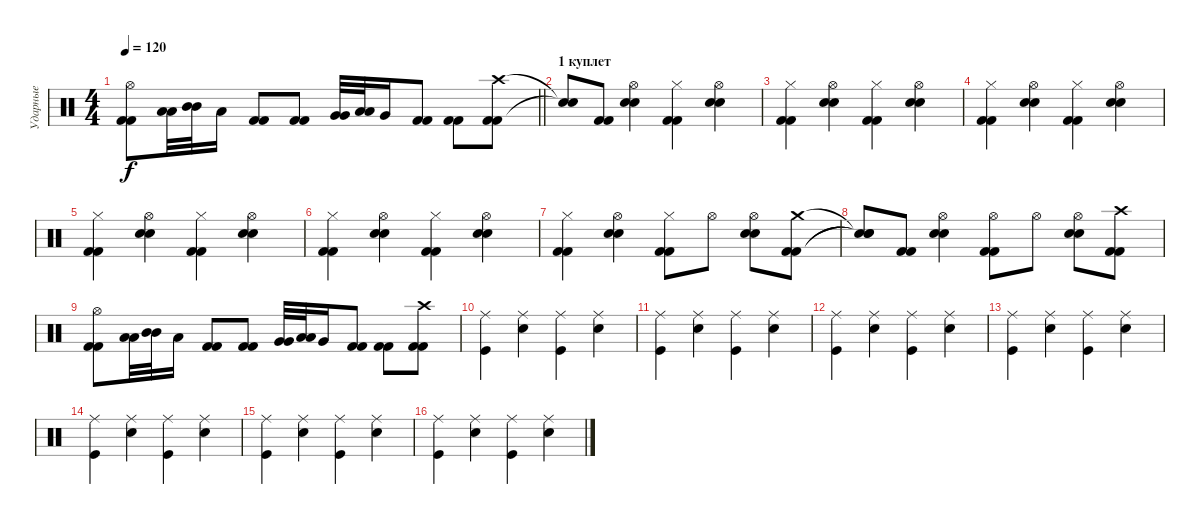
\track ("Ударные" "Ударные") {instrument percussion}
\staff {score}
\articulation defaults
\ts (4 4)
\tempo 120
\clef neutral
\barLineRight lightlight
\ks c
("Hi-Hat (open)" "Kick (hit) 2" "Kick (hit) 2").8{dy f} ("Low Tom (hit)" "Low Tom (hit)").32 ("Mid Tom (hit)" "Mid Tom (hit)").32 "Low Tom (hit)".16 ("Kick (hit) 2" "Kick (hit) 2").8 ("Kick (hit) 2" "Kick (hit) 2").8 ("Very Low Tom (hit)" "Very Low Tom (hit)").32 ("Low Tom (hit)" "Low Tom (hit)").32 "Very Low Tom (hit)".16 ("Kick (hit) 2" "Kick (hit) 2").8 ("Kick (hit) 2" "Kick (hit) 2").8 ("Crash high (hit)" "Kick (hit) 2" "Kick (hit) 2").8 |
\section ("" "1 куплет")
("Snare (hit)"{t} "Snare (hit)"{t}).8 ("Kick (hit) 2" "Kick (hit) 2").8 ("Hi-Hat (open)" "Electric Snare (hit)" "Electric Snare (hit)").4 ("Hi-Hat (closed)" "Kick (hit) 2" "Kick (hit) 2").4 ("Hi-Hat (open)" "Electric Snare (hit)" "Electric Snare (hit)").4 |
("Hi-Hat (closed)" "Kick (hit) 2" "Kick (hit) 2").4 ("Hi-Hat (open)" "Electric Snare (hit)" "Electric Snare (hit)").4 ("Hi-Hat (closed)" "Kick (hit) 2" "Kick (hit) 2").4 ("Hi-Hat (open)" "Electric Snare (hit)" "Electric Snare (hit)").4 |
("Hi-Hat (closed)" "Kick (hit) 2" "Kick (hit) 2").4 ("Hi-Hat (open)" "Electric Snare (hit)" "Electric Snare (hit)").4 ("Hi-Hat (closed)" "Kick (hit) 2" "Kick (hit) 2").4 ("Hi-Hat (open)" "Electric Snare (hit)" "Electric Snare (hit)").4 |
("Hi-Hat (closed)" "Kick (hit) 2" "Kick (hit) 2").4 ("Hi-Hat (open)" "Electric Snare (hit)" "Electric Snare (hit)").4 ("Hi-Hat (closed)" "Kick (hit) 2" "Kick (hit) 2").4 ("Hi-Hat (open)" "Electric Snare (hit)" "Electric Snare (hit)").4 |
("Hi-Hat (closed)" "Kick (hit) 2" "Kick (hit) 2").4 ("Hi-Hat (open)" "Electric Snare (hit)" "Electric Snare (hit)").4 ("Hi-Hat (closed)" "Kick (hit) 2" "Kick (hit) 2").4 ("Hi-Hat (open)" "Electric Snare (hit)" "Electric Snare (hit)").4 |
("Hi-Hat (closed)" "Kick (hit) 2" "Kick (hit) 2").4 ("Hi-Hat (open)" "Electric Snare (hit)" "Electric Snare (hit)").4 ("Hi-Hat (closed)" "Kick (hit) 2" "Kick (hit) 2").8 "Hi-Hat (open)".8 ("Hi-Hat (open)" "Electric Snare (hit)" "Electric Snare (hit)").8 ("Crash medium (hit)" "Kick (hit) 2" "Kick (hit) 2").8 |
("Snare (hit)"{t} "Snare (hit)"{t} "Snare (hit)"{t}).8 ("Kick (hit) 2" "Kick (hit) 2").8 ("Hi-Hat (open)" "Electric Snare (hit)" "Electric Snare (hit)").4 ("Hi-Hat (open)" "Kick (hit) 2" "Kick (hit) 2").8 "Hi-Hat (open)".8 ("Hi-Hat (open)" "Electric Snare (hit)" "Electric Snare (hit)").8 ("Crash high (hit)" "Kick (hit) 2" "Kick (hit) 2").8 |
("Hi-Hat (open)" "Kick (hit) 2" "Kick (hit) 2").8 ("Low Tom (hit)" "Low Tom (hit)").32 ("Mid Tom (hit)" "Mid Tom (hit)").32 "Low Tom (hit)".16 ("Kick (hit) 2" "Kick (hit) 2").8 ("Kick (hit) 2" "Kick (hit) 2").8 ("Very Low Tom (hit)" "Very Low Tom (hit)").32 ("Low Tom (hit)" "Low Tom (hit)").32 "Very Low Tom (hit)".16 ("Kick (hit) 2" "Kick (hit) 2").8 ("Kick (hit) 2" "Kick (hit) 2").8 ("Crash high (hit)" "Kick (hit) 2" "Kick (hit) 2").8 |
("Kick (hit)" "Ride (middle)").4 ("Snare (hit) 2" "Ride (middle)").4 ("Kick (hit)" "Ride (middle)").4 ("Snare (hit) 2" "Ride (middle)").4 |
("Kick (hit)" "Ride (middle)").4 ("Snare (hit) 2" "Ride (middle)").4 ("Kick (hit)" "Ride (middle)").4 ("Snare (hit) 2" "Ride (middle)").4 |
("Kick (hit)" "Ride (middle)").4 ("Snare (hit) 2" "Ride (middle)").4 ("Kick (hit)" "Ride (middle)").4 ("Snare (hit) 2" "Ride (middle)").4 |
("Kick (hit)" "Ride (middle)").4 ("Snare (hit) 2" "Ride (middle)").4 ("Kick (hit)" "Ride (middle)").4 ("Snare (hit) 2" "Ride (middle)").4 |
("Kick (hit)" "Ride (middle)").4 ("Snare (hit) 2" "Ride (middle)").4 ("Kick (hit)" "Ride (middle)").4 ("Snare (hit) 2" "Ride (middle)").4 |
("Kick (hit)" "Ride (middle)").4 ("Snare (hit) 2" "Ride (middle)").4 ("Kick (hit)" "Ride (middle)").4 ("Snare (hit) 2" "Ride (middle)").4 |
("Kick (hit)" "Ride (middle)").4 ("Snare (hit) 2" "Ride (middle)").4 ("Kick (hit)" "Ride (middle)").4 ("Snare (hit) 2" "Ride (middle)").4
